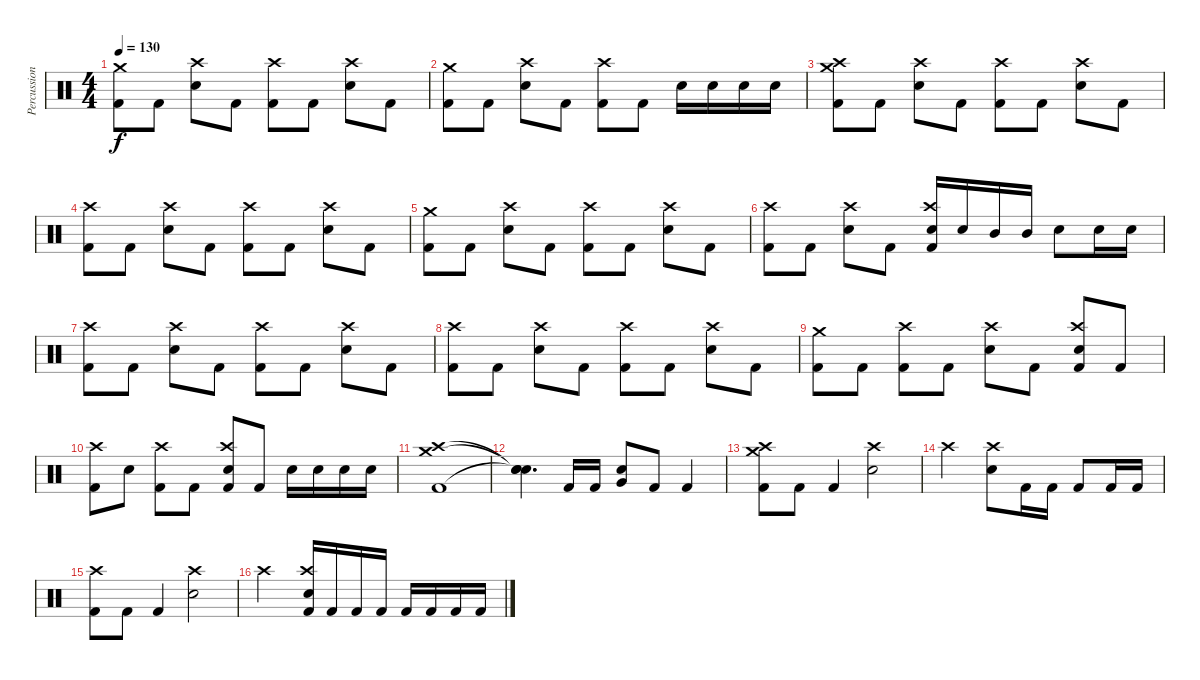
\track ("Percussion" "Percussion") {instrument percussion}
\staff {score}
\articulation defaults
\ts (4 4)
\tempo 130
\clef neutral
\ks c
("Crash medium (hit)" "Kick (hit) 2").8{dy f} "Kick (hit) 2".8 ("Crash high (hit)" "Electric Snare (hit)").8 "Kick (hit) 2".8 ("Crash high (hit)" "Kick (hit) 2").8 "Kick (hit) 2".8 ("Crash high (hit)" "Electric Snare (hit)").8 "Kick (hit) 2".8 |
("Crash medium (hit)" "Kick (hit) 2").8 "Kick (hit) 2".8 ("Crash high (hit)" "Electric Snare (hit)").8 "Kick (hit) 2".8 ("Crash high (hit)" "Kick (hit) 2").8 "Kick (hit) 2".8 "Electric Snare (hit)".16 "Electric Snare (hit)".16 "Electric Snare (hit)".16 "Electric Snare (hit)".16 |
("Crash high (hit)" "Crash medium (hit)" "Kick (hit) 2").8 "Kick (hit) 2".8 ("Crash high (hit)" "Electric Snare (hit)").8 "Kick (hit) 2".8 ("Crash high (hit)" "Kick (hit) 2").8 "Kick (hit) 2".8 ("Crash high (hit)" "Electric Snare (hit)").8 "Kick (hit) 2".8 |
("Crash high (hit)" "Kick (hit) 2").8 "Kick (hit) 2".8 ("Crash high (hit)" "Electric Snare (hit)").8 "Kick (hit) 2".8 ("Crash high (hit)" "Kick (hit) 2").8 "Kick (hit) 2".8 ("Crash high (hit)" "Electric Snare (hit)").8 "Kick (hit) 2".8 |
("Crash medium (hit)" "Kick (hit) 2").8 "Kick (hit) 2".8 ("Crash high (hit)" "Electric Snare (hit)").8 "Kick (hit) 2".8 ("Crash high (hit)" "Kick (hit) 2").8 "Kick (hit) 2".8 ("Crash high (hit)" "Electric Snare (hit)").8 "Kick (hit) 2".8 |
("Crash high (hit)" "Kick (hit) 2").8 "Kick (hit) 2".8 ("Crash high (hit)" "Electric Snare (hit)").8 "Kick (hit) 2".8 ("Crash high (hit)" "Electric Snare (hit)" "Kick (hit) 2").16 "Electric Snare (hit)".16 "Mid Tom (hit)".16 "Mid Tom (hit)".16 "Electric Snare (hit)".8 "Electric Snare (hit)".16 "Electric Snare (hit)".16 |
("Crash high (hit)" "Kick (hit) 2").8 "Kick (hit) 2".8 ("Crash high (hit)" "Electric Snare (hit)").8 "Kick (hit) 2".8 ("Crash high (hit)" "Kick (hit) 2").8 "Kick (hit) 2".8 ("Crash high (hit)" "Electric Snare (hit)").8 "Kick (hit) 2".8 |
("Crash high (hit)" "Kick (hit) 2").8 "Kick (hit) 2".8 ("Crash high (hit)" "Electric Snare (hit)").8 "Kick (hit) 2".8 ("Crash high (hit)" "Kick (hit) 2").8 "Kick (hit) 2".8 ("Crash high (hit)" "Electric Snare (hit)").8 "Kick (hit) 2".8 |
("Crash medium (hit)" "Kick (hit) 2").8 "Kick (hit) 2".8 ("Crash high (hit)" "Kick (hit) 2").8 "Kick (hit) 2".8 ("Crash high (hit)" "Electric Snare (hit)").8 "Kick (hit) 2".8 ("Crash high (hit)" "Electric Snare (hit)" "Kick (hit) 2").8 "Kick (hit) 2".8 |
("Crash high (hit)" "Kick (hit) 2").8 "Electric Snare (hit)".8 ("Crash high (hit)" "Kick (hit) 2").8 "Kick (hit) 2".8 ("Crash high (hit)" "Electric Snare (hit)" "Kick (hit) 2").8 "Kick (hit) 2".8 "Electric Snare (hit)".16 "Electric Snare (hit)".16 "Electric Snare (hit)".16 "Electric Snare (hit)".16 |
("Crash high (hit)" "Crash medium (hit)" "Kick (hit) 2").1 |
("Snare (hit)"{t} "Snare (hit)"{t} "Snare (hit)"{t}).4{d} "Kick (hit) 2".16 "Kick (hit) 2".16 ("Very Low Tom (hit)" "Electric Snare (hit)").8 "Kick (hit) 2".8 "Kick (hit) 2".4 |
("Crash high (hit)" "Crash medium (hit)" "Kick (hit) 2").8 "Kick (hit) 2".8 "Kick (hit) 2".4 ("Crash high (hit)" "Electric Snare (hit)").2 |
"Crash high (hit)".2 ("Crash high (hit)" "Electric Snare (hit)").8 "Kick (hit) 2".16 "Kick (hit) 2".16 "Kick (hit) 2".8 "Kick (hit) 2".16 "Kick (hit) 2".16 |
("Crash high (hit)" "Kick (hit) 2").8 "Kick (hit) 2".8 "Kick (hit) 2".4 ("Crash high (hit)" "Electric Snare (hit)").2 |
"Crash high (hit)".2 ("Crash high (hit)" "Electric Snare (hit)" "Kick (hit) 2").16 "Kick (hit) 2".16 "Kick (hit) 2".16 "Kick (hit) 2".16 "Kick (hit) 2".16 "Kick (hit) 2".16 "Kick (hit) 2".16 "Kick (hit) 2".16
